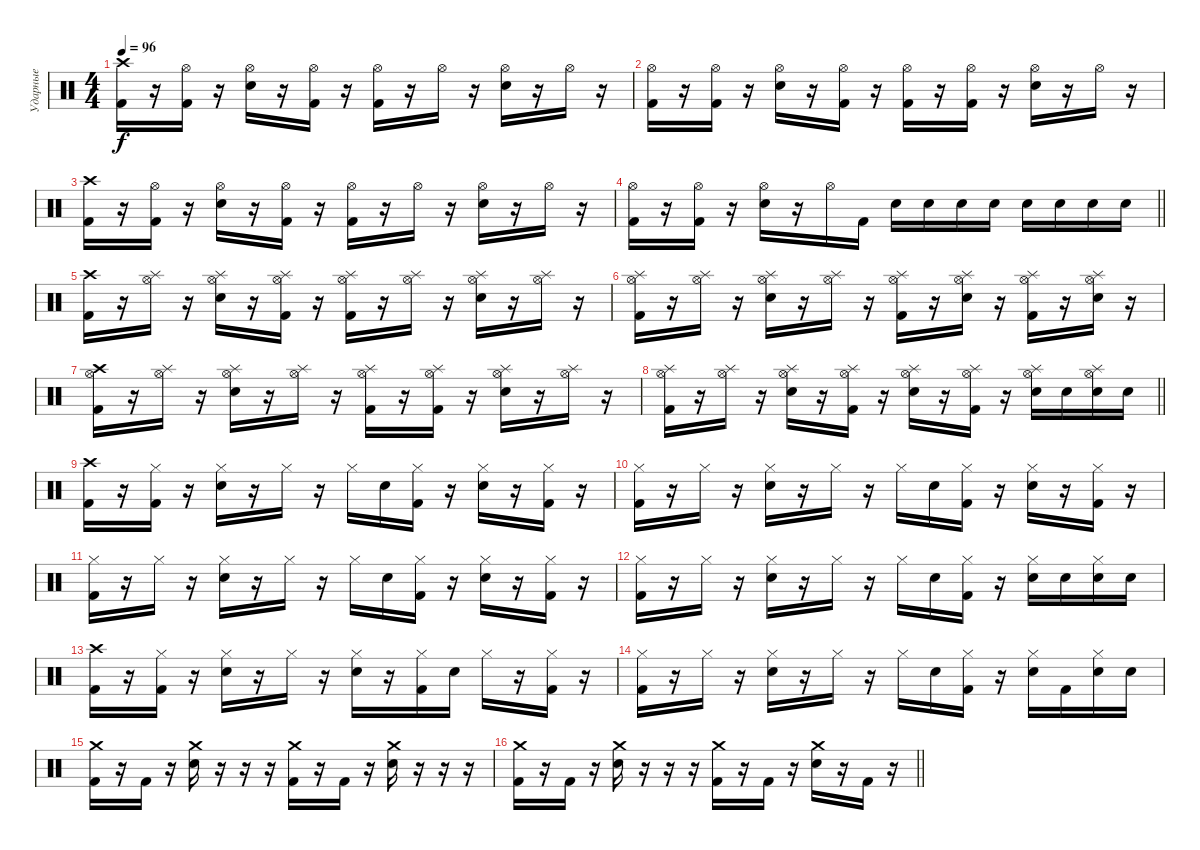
\track ("Ударные" "Ударные") {instrument percussion}
\staff {score}
\articulation defaults
\ts (4 4)
\tempo 96
\clef neutral
\ks c
("Crash high (hit)" "Kick (hit) 2").16{dy f} r.16 ("Hi-Hat (open)" "Kick (hit) 2").16 r.16 ("Hi-Hat (open)" "Snare (hit) 2").16 r.16 ("Hi-Hat (open)" "Kick (hit) 2").16 r.16 ("Hi-Hat (open)" "Kick (hit) 2").16 r.16 "Hi-Hat (open)".16 r.16 ("Hi-Hat (open)" "Snare (hit) 2").16 r.16 "Hi-Hat (open)".16 r.16 |
("Hi-Hat (open)" "Kick (hit) 2").16 r.16 ("Hi-Hat (open)" "Kick (hit) 2").16 r.16 ("Hi-Hat (open)" "Snare (hit) 2").16 r.16 ("Hi-Hat (open)" "Kick (hit) 2").16 r.16 ("Hi-Hat (open)" "Kick (hit) 2").16 r.16 ("Hi-Hat (open)" "Kick (hit) 2").16 r.16 ("Hi-Hat (open)" "Snare (hit) 2").16 r.16 "Hi-Hat (open)".16 r.16 |
("Crash high (hit)" "Kick (hit) 2").16 r.16 ("Hi-Hat (open)" "Kick (hit) 2").16 r.16 ("Hi-Hat (open)" "Snare (hit) 2").16 r.16 ("Hi-Hat (open)" "Kick (hit) 2").16 r.16 ("Hi-Hat (open)" "Kick (hit) 2").16 r.16 "Hi-Hat (open)".16 r.16 ("Hi-Hat (open)" "Snare (hit) 2").16 r.16 "Hi-Hat (open)".16 r.16 |
\barLineRight lightlight
("Hi-Hat (open)" "Kick (hit) 2").16 r.16 ("Hi-Hat (open)" "Kick (hit) 2").16 r.16 ("Hi-Hat (open)" "Snare (hit) 2").16 r.16 "Hi-Hat (open)".16 "Kick (hit) 2".16 "Snare (hit) 2".16 "Snare (hit) 2".16 "Snare (hit) 2".16 "Snare (hit) 2".16 "Snare (hit) 2".16 "Snare (hit) 2".16 "Snare (hit) 2".16 "Snare (hit) 2".16 |
("Crash high (hit)" "Kick (hit) 2").16 r.16 ("Hi-Hat (open)" "Splash (hit)").16 r.16 ("Hi-Hat (open)" "Splash (hit)" "Snare (hit) 2").16 r.16 ("Hi-Hat (open)" "Splash (hit)" "Kick (hit) 2").16 r.16 ("Hi-Hat (open)" "Splash (hit)" "Kick (hit) 2").16 r.16 ("Hi-Hat (open)" "Splash (hit)").16 r.16 ("Hi-Hat (open)" "Splash (hit)" "Snare (hit) 2").16 r.16 ("Hi-Hat (open)" "Splash (hit)").16 r.16 |
("Hi-Hat (open)" "Splash (hit)" "Kick (hit) 2").16 r.16 ("Hi-Hat (open)" "Splash (hit)").16 r.16 ("Hi-Hat (open)" "Splash (hit)" "Snare (hit) 2").16 r.16 ("Hi-Hat (open)" "Splash (hit)").16 r.16 ("Hi-Hat (open)" "Splash (hit)" "Kick (hit) 2").16 r.16 ("Hi-Hat (open)" "Splash (hit)" "Snare (hit) 2").16 r.16 ("Hi-Hat (open)" "Splash (hit)" "Kick (hit) 2").16 r.16 ("Hi-Hat (open)" "Splash (hit)" "Snare (hit) 2").16 r.16 |
("Crash high (hit)" "Hi-Hat (open)" "Kick (hit) 2").16 r.16 ("Hi-Hat (open)" "Splash (hit)").16 r.16 ("Hi-Hat (open)" "Splash (hit)" "Snare (hit) 2").16 r.16 ("Hi-Hat (open)" "Splash (hit)").16 r.16 ("Hi-Hat (open)" "Splash (hit)" "Kick (hit) 2").16 r.16 ("Hi-Hat (open)" "Splash (hit)" "Kick (hit) 2").16 r.16 ("Hi-Hat (open)" "Splash (hit)" "Snare (hit) 2").16 r.16 ("Hi-Hat (open)" "Splash (hit)").16 r.16 |
\barLineRight lightlight
("Hi-Hat (open)" "Splash (hit)" "Kick (hit) 2").16 r.16 ("Hi-Hat (open)" "Splash (hit)").16 r.16 ("Hi-Hat (open)" "Splash (hit)" "Snare (hit) 2").16 r.16 ("Hi-Hat (open)" "Splash (hit)" "Kick (hit) 2").16 r.16 ("Hi-Hat (open)" "Splash (hit)" "Snare (hit) 2").16 r.16 ("Hi-Hat (open)" "Splash (hit)" "Kick (hit) 2").16 r.16 ("Hi-Hat (open)" "Splash (hit)" "Snare (hit) 2").16 "Snare (hit) 2".16 ("Hi-Hat (open)" "Splash (hit)" "Snare (hit) 2").16 "Snare (hit) 2".16 |
("Crash high (hit)" "Kick (hit) 2").16 r.16 ("Hi-Hat (closed)" "Kick (hit) 2").16 r.16 ("Hi-Hat (closed)" "Snare (hit) 2").16 r.16 "Hi-Hat (closed)".16 r.16 "Hi-Hat (closed)".16 "Snare (hit) 2".16 ("Hi-Hat (closed)" "Kick (hit) 2").16 r.16 ("Hi-Hat (closed)" "Snare (hit) 2").16 r.16 ("Hi-Hat (closed)" "Kick (hit) 2").16 r.16 |
("Hi-Hat (closed)" "Kick (hit) 2").16 r.16 "Hi-Hat (closed)".16 r.16 ("Hi-Hat (closed)" "Snare (hit) 2").16 r.16 "Hi-Hat (closed)".16 r.16 "Hi-Hat (closed)".16 "Snare (hit) 2".16 ("Hi-Hat (closed)" "Kick (hit) 2").16 r.16 ("Hi-Hat (closed)" "Snare (hit) 2").16 r.16 ("Hi-Hat (closed)" "Kick (hit) 2").16 r.16 |
("Hi-Hat (closed)" "Kick (hit) 2").16 r.16 "Hi-Hat (closed)".16 r.16 ("Hi-Hat (closed)" "Snare (hit) 2").16 r.16 "Hi-Hat (closed)".16 r.16 "Hi-Hat (closed)".16 "Snare (hit) 2".16 ("Hi-Hat (closed)" "Kick (hit) 2").16 r.16 ("Hi-Hat (closed)" "Snare (hit) 2").16 r.16 ("Hi-Hat (closed)" "Kick (hit) 2").16 r.16 |
("Hi-Hat (closed)" "Kick (hit) 2").16 r.16 "Hi-Hat (closed)".16 r.16 ("Hi-Hat (closed)" "Snare (hit) 2").16 r.16 "Hi-Hat (closed)".16 r.16 "Hi-Hat (closed)".16 "Snare (hit) 2".16 ("Hi-Hat (closed)" "Kick (hit) 2").16 r.16 ("Hi-Hat (closed)" "Snare (hit) 2").16 "Snare (hit) 2".16 ("Hi-Hat (closed)" "Snare (hit) 2").16 "Snare (hit) 2".16 |
("Crash high (hit)" "Kick (hit) 2").16 r.16 ("Hi-Hat (closed)" "Kick (hit) 2").16 r.16 ("Hi-Hat (closed)" "Snare (hit) 2").16 r.16 "Hi-Hat (closed)".16 r.16 ("Hi-Hat (closed)" "Snare (hit) 2").16 r.16 ("Hi-Hat (closed)" "Kick (hit) 2").16 "Snare (hit) 2".16 "Hi-Hat (closed)".16 r.16 ("Hi-Hat (closed)" "Kick (hit) 2").16 r.16 |
("Hi-Hat (closed)" "Kick (hit) 2").16 r.16 "Hi-Hat (closed)".16 r.16 ("Hi-Hat (closed)" "Snare (hit) 2").16 r.16 "Hi-Hat (closed)".16 r.16 "Hi-Hat (closed)".16 "Snare (hit) 2".16 ("Hi-Hat (closed)" "Kick (hit) 2").16 r.16 ("Hi-Hat (closed)" "Snare (hit) 2").16 "Kick (hit) 2".16 ("Hi-Hat (closed)" "Snare (hit) 2").16 "Snare (hit) 2".16 |
("Crash medium (hit)" "Kick (hit) 2").16 r.16 "Kick (hit) 2".16 r.16 ("Crash medium (hit)" "Snare (hit) 2").16 r.16 r.16 r.16 ("Crash medium (hit)" "Kick (hit) 2").16 r.16 "Kick (hit) 2".16 r.16 ("Crash medium (hit)" "Snare (hit) 2").16 r.16 r.16 r.16 |
\barLineRight lightlight
("Crash medium (hit)" "Kick (hit) 2").16 r.16 "Kick (hit) 2".16 r.16 ("Crash medium (hit)" "Snare (hit) 2").16 r.16 r.16 r.16 ("Crash medium (hit)" "Kick (hit) 2").16 r.16 "Kick (hit) 2".16 r.16 ("Crash medium (hit)" "Snare (hit) 2").16 r.16 "Kick (hit) 2".16 r.16
